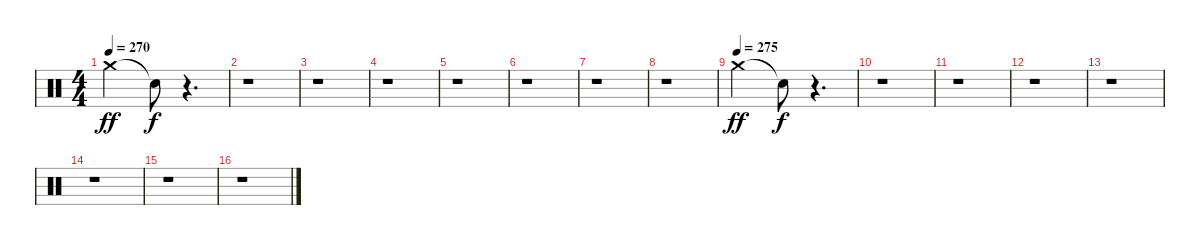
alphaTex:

\track "" {instrument percussion}
\staff {score}
\articulation defaults
\ts (4 4)
\tempo 270
\clef neutral
\ks c "Crash medium (hit)".2{dy ff} "Snare (hit)"{t}.8{dy f}
r.4{d} |
r.1 |
r.1 |
r.1 |
r.1 |
r.1 |
r.1 |
r.1 |
\tempo (275)
"Crash medium (hit)".2{dy ff} "Snare (hit)"{t}.8{dy f} r.4{d} |
r.1 |
r.1 |
r.1 |
r.1 |
r.1 |
r.1 |
r.1
